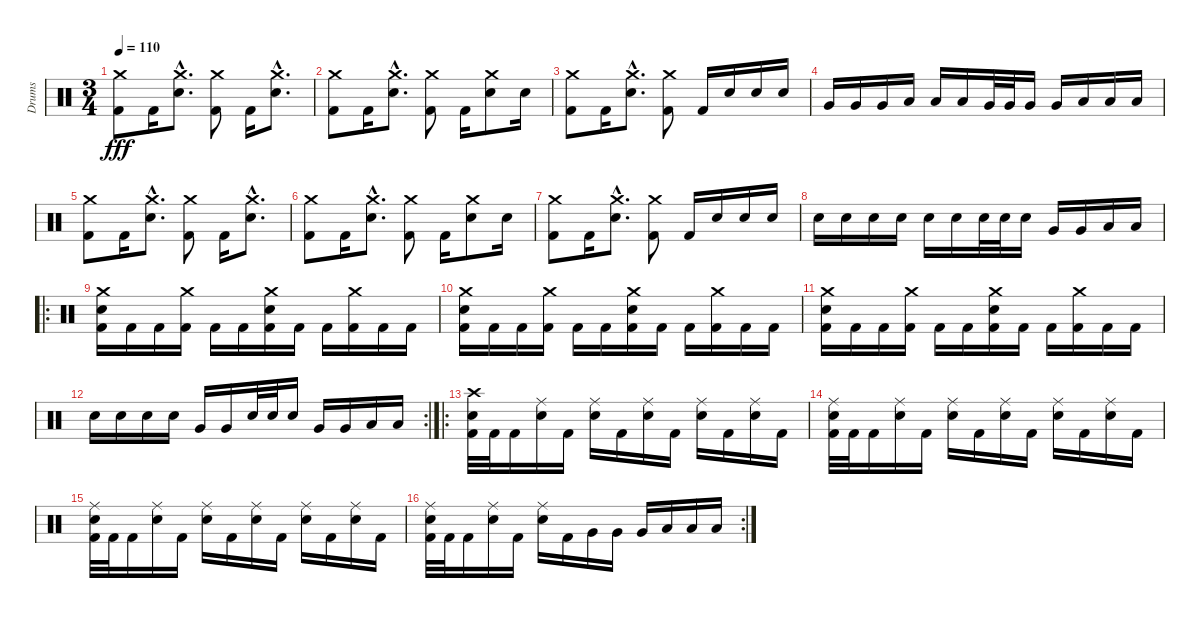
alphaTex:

\track ("Drums" "Drums") {instrument percussion}
\staff {score}
\articulation defaults
\ts (3 4)
\tempo 110
\clef neutral
\ks c
("Crash medium (hit)" "Kick (hit) 2").8{dy fff} "Kick (hit) 2".16 ("Crash medium (hit)"{hac} "Electric Snare (hit)"{hac}).8{d} ("Crash medium (hit)" "Kick (hit) 2").8 "Kick (hit) 2".16 ("Crash medium (hit)"{hac} "Electric Snare (hit)"{hac}).8{d} |
("Crash medium (hit)" "Kick (hit) 2").8 "Kick (hit) 2".16 ("Crash medium (hit)"{hac} "Electric Snare (hit)"{hac}).8{d} ("Crash medium (hit)" "Kick (hit) 2").8 "Kick (hit) 2".16 ("Crash medium (hit)" "Electric Snare (hit)").8 "Electric Snare (hit)".16 |
("Crash medium (hit)" "Kick (hit) 2").8 "Kick (hit) 2".16 ("Crash medium (hit)"{hac} "Electric Snare (hit)"{hac}).8{d} ("Crash medium (hit)" "Kick (hit) 2").8 "Kick (hit) 2".16 "Electric Snare (hit)".16 "Electric Snare (hit)".16 "Electric Snare (hit)".16 |
"Very Low Tom (hit)".16 "Very Low Tom (hit)".16 "Very Low Tom (hit)".16 "Low Tom (hit)".16 "Low Tom (hit)".16 "Low Tom (hit)".16 "Very Low Tom (hit)".32 "Very Low Tom (hit)".32 "Very Low Tom (hit)".16 "Very Low Tom (hit)".16 "Low Tom (hit)".16 "Low Tom (hit)".16 "Low Tom (hit)".16 |
("Crash medium (hit)" "Kick (hit) 2").8 "Kick (hit) 2".16 ("Crash medium (hit)"{hac} "Electric Snare (hit)"{hac}).8{d} ("Crash medium (hit)" "Kick (hit) 2").8 "Kick (hit) 2".16 ("Crash medium (hit)"{hac} "Electric Snare (hit)"{hac}).8{d} |
("Crash medium (hit)" "Kick (hit) 2").8 "Kick (hit) 2".16 ("Crash medium (hit)"{hac} "Electric Snare (hit)"{hac}).8{d} ("Crash medium (hit)" "Kick (hit) 2").8 "Kick (hit) 2".16 ("Crash medium (hit)" "Electric Snare (hit)").8 "Electric Snare (hit)".16 |
("Crash medium (hit)" "Kick (hit) 2").8 "Kick (hit) 2".16 ("Crash medium (hit)"{hac} "Electric Snare (hit)"{hac}).8{d} ("Crash medium (hit)" "Kick (hit) 2").8 "Kick (hit) 2".16 "Electric Snare (hit)".16 "Electric Snare (hit)".16 "Electric Snare (hit)".16 |
"Electric Snare (hit)".16 "Electric Snare (hit)".16 "Electric Snare (hit)".16 "Electric Snare (hit)".16 "Electric Snare (hit)".16 "Electric Snare (hit)".16 "Electric Snare (hit)".32 "Electric Snare (hit)".32 "Electric Snare (hit)".16 "Very Low Tom (hit)".16 "Very Low Tom (hit)".16 "Low Tom (hit)".16 "Low Tom (hit)".16 |
\ro
("Crash medium (hit)" "Electric Snare (hit)" "Kick (hit) 2").16 "Kick (hit) 2".16 "Kick (hit) 2".16 ("Crash medium (hit)" "Kick (hit) 2").16 "Kick (hit) 2".16 "Kick (hit) 2".16 ("Crash medium (hit)" "Electric Snare (hit)" "Kick (hit) 2").16 "Kick (hit) 2".16 "Kick (hit) 2".16 ("Crash medium (hit)" "Kick (hit) 2").16 "Kick (hit) 2".16 "Kick (hit) 2".16 |
("Crash medium (hit)" "Electric Snare (hit)" "Kick (hit) 2").16 "Kick (hit) 2".16 "Kick (hit) 2".16 ("Crash medium (hit)" "Kick (hit) 2").16 "Kick (hit) 2".16 "Kick (hit) 2".16 ("Crash medium (hit)" "Electric Snare (hit)" "Kick (hit) 2").16 "Kick (hit) 2".16 "Kick (hit) 2".16 ("Crash medium (hit)" "Kick (hit) 2").16 "Kick (hit) 2".16 "Kick (hit) 2".16 |
("Crash medium (hit)" "Electric Snare (hit)" "Kick (hit) 2").16 "Kick (hit) 2".16 "Kick (hit) 2".16 ("Crash medium (hit)" "Kick (hit) 2").16 "Kick (hit) 2".16 "Kick (hit) 2".16 ("Crash medium (hit)" "Electric Snare (hit)" "Kick (hit) 2").16 "Kick (hit) 2".16 "Kick (hit) 2".16 ("Crash medium (hit)" "Kick (hit) 2").16 "Kick (hit) 2".16 "Kick (hit) 2".16 |
\rc 2 "Electric Snare (hit)".16 "Electric Snare (hit)".16 "Electric Snare (hit)".16 "Electric Snare (hit)".16 "Very Low Tom (hit)".16 "Very Low Tom (hit)".16 "Electric Snare (hit)".32 "Electric Snare (hit)".32 "Electric Snare (hit)".16 "Very Low Tom (hit)".16 "Very Low Tom (hit)".16 "Low Tom (hit)".16 "Low Tom (hit)".16
|
\ro
("Crash high (hit)" "Electric Snare (hit)" "Kick (hit) 2").32 "Kick (hit) 2".32 "Kick (hit) 2".16 ("Ride (middle)" "Electric Snare (hit)").16 "Kick (hit) 2".16 ("Ride (middle)" "Electric Snare (hit)").16 "Kick (hit) 2".16 ("Ride (middle)" "Electric Snare (hit)").16 "Kick (hit) 2".16 ("Ride (middle)" "Electric Snare (hit)").16 "Kick (hit) 2".16 ("Ride (middle)" "Electric Snare (hit)").16 "Kick (hit) 2".16 |
("Ride (middle)" "Electric Snare (hit)" "Kick (hit) 2").32 "Kick (hit) 2".32 "Kick (hit) 2".16 ("Ride (middle)" "Electric Snare (hit)").16 "Kick (hit) 2".16 ("Ride (middle)" "Electric Snare (hit)").16 "Kick (hit) 2".16 ("Ride (middle)" "Electric Snare (hit)").16 "Kick (hit) 2".16 ("Ride (middle)" "Electric Snare (hit)").16 "Kick (hit) 2".16 ("Ride (middle)" "Electric Snare (hit)").16 "Kick (hit) 2".16 |
("Ride (middle)" "Electric Snare (hit)" "Kick (hit) 2").32 "Kick (hit) 2".32 "Kick (hit) 2".16 ("Ride (middle)" "Electric Snare (hit)").16 "Kick (hit) 2".16 ("Ride (middle)" "Electric Snare (hit)").16 "Kick (hit) 2".16 ("Ride (middle)" "Electric Snare (hit)").16 "Kick (hit) 2".16 ("Ride (middle)" "Electric Snare (hit)").16 "Kick (hit) 2".16 ("Ride (middle)" "Electric Snare (hit)").16 "Kick (hit) 2".16 |
\rc 2
("Ride (middle)" "Electric Snare (hit)" "Kick (hit) 2").32 "Kick (hit) 2".32 "Kick (hit) 2".16 ("Ride (middle)" "Electric Snare (hit)").16 "Kick (hit) 2".16 ("Ride (middle)" "Electric Snare (hit)").16 "Kick (hit) 2".16 "Very Low Tom (hit)".16 "Very Low Tom (hit)".16 "Very Low Tom (hit)".16 "Low Tom (hit)".16 "Low Tom (hit)".16 "Low Tom (hit)".16
